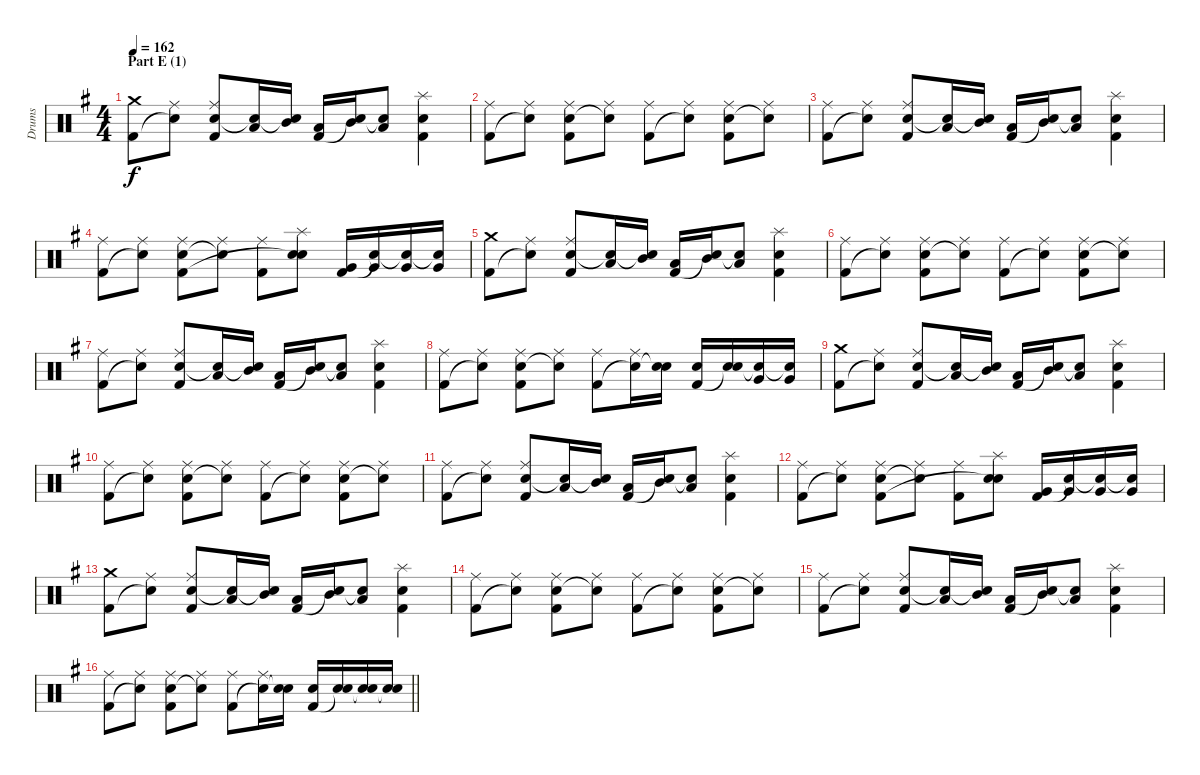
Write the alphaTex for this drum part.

\track ("Drums" "Drums") {instrument percussion}
\staff {score}
\articulation defaults
\ts (4 4)
\section ("" "Part E (1)")
\tempo 162
\clef neutral
\ks g
("Crash medium (hit)" "Kick (hit) 2").8{dy f} ("Ride (middle)" "Snare (hit)"{t}).8 ("Ride (middle)" "Electric Snare (hit)" "Kick (hit) 2").8 ("Low Tom (hit)" "Snare (hit)"{t}).16 ("Mid Tom (hit)" "Snare (hit)"{t}).16 ("Low Tom (hit)" "Kick (hit) 2").16 ("Mid Tom (hit)" "Snare (hit)"{t}).16 ("Low Tom (hit)" "Snare (hit)"{t}).8 ("Splash (hit)" "Electric Snare (hit)" "Kick (hit) 2").4 |
("Ride (middle)" "Kick (hit) 2").8 ("Ride (middle)" "Snare (hit)"{t}).8 ("Ride (middle)" "Electric Snare (hit)" "Kick (hit) 2").8 ("Ride (middle)" "Snare (hit)"{t}).8 ("Ride (middle)" "Kick (hit) 2").8 ("Ride (middle)" "Snare (hit)"{t}).8 ("Ride (middle)" "Electric Snare (hit)" "Kick (hit) 2").8 ("Ride (middle)" "Snare (hit)"{t}).8 |
("Ride (middle)" "Kick (hit) 2").8 ("Ride (middle)" "Snare (hit)"{t}).8 ("Ride (middle)" "Electric Snare (hit)" "Kick (hit) 2").8 ("Low Tom (hit)" "Snare (hit)"{t}).16 ("Mid Tom (hit)" "Snare (hit)"{t}).16 ("Low Tom (hit)" "Kick (hit) 2").16 ("Mid Tom (hit)" "Snare (hit)"{t}).16 ("Low Tom (hit)" "Snare (hit)"{t}).8 ("Splash (hit)" "Electric Snare (hit)" "Kick (hit) 2").4 |
("Ride (middle)" "Kick (hit) 2").8 ("Ride (middle)" "Snare (hit)"{t}).8 ("Ride (middle)" "Electric Snare (hit)" "Kick (hit) 2").8 ("Ride (middle)" "Snare (hit)"{t}).8 ("Ride (middle)" "Kick (hit) 2").8 ("Splash (hit)" "Electric Snare (hit)" "Snare (hit)"{t}).8 ("Very Low Tom (hit)" "Kick (hit) 2").16 ("Very Low Tom (hit)" "Snare (hit)"{t}).16 ("Very Low Tom (hit)" "Snare (hit)"{t}).16 ("Very Low Tom (hit)" "Snare (hit)"{t}).16 |
("Crash medium (hit)" "Kick (hit) 2").8 ("Ride (middle)" "Snare (hit)"{t}).8 ("Ride (middle)" "Electric Snare (hit)" "Kick (hit) 2").8 ("Low Tom (hit)" "Snare (hit)"{t}).16 ("Mid Tom (hit)" "Snare (hit)"{t}).16 ("Low Tom (hit)" "Kick (hit) 2").16 ("Mid Tom (hit)" "Snare (hit)"{t}).16 ("Low Tom (hit)" "Snare (hit)"{t}).8 ("Splash (hit)" "Electric Snare (hit)" "Kick (hit) 2").4 |
("Ride (middle)" "Kick (hit) 2").8 ("Ride (middle)" "Snare (hit)"{t}).8 ("Ride (middle)" "Electric Snare (hit)" "Kick (hit) 2").8 ("Ride (middle)" "Snare (hit)"{t}).8 ("Ride (middle)" "Kick (hit) 2").8 ("Ride (middle)" "Snare (hit)"{t}).8 ("Ride (middle)" "Electric Snare (hit)" "Kick (hit) 2").8 ("Ride (middle)" "Snare (hit)"{t}).8 |
("Ride (middle)" "Kick (hit) 2").8 ("Ride (middle)" "Snare (hit)"{t}).8 ("Ride (middle)" "Electric Snare (hit)" "Kick (hit) 2").8 ("Low Tom (hit)" "Snare (hit)"{t}).16 ("Mid Tom (hit)" "Snare (hit)"{t}).16 ("Low Tom (hit)" "Kick (hit) 2").16 ("Mid Tom (hit)" "Snare (hit)"{t}).16 ("Low Tom (hit)" "Snare (hit)"{t}).8 ("Splash (hit)" "Electric Snare (hit)" "Kick (hit) 2").4 |
("Ride (middle)" "Kick (hit) 2").8 ("Ride (middle)" "Snare (hit)"{t}).8 ("Ride (middle)" "Electric Snare (hit)" "Kick (hit) 2").8 ("Ride (middle)" "Snare (hit)"{t}).8 ("Ride (middle)" "Kick (hit) 2").8 ("Ride (middle)" "Snare (hit)"{t}).16 ("Electric Snare (hit)" "Snare (hit)"{t}).16 ("Electric Snare (hit)" "Kick (hit) 2").16 ("Electric Snare (hit)" "Snare (hit)"{t}).16 ("Very Low Tom (hit)" "Snare (hit)"{t}).16 ("Very Low Tom (hit)" "Snare (hit)"{t}).16 |
("Crash medium (hit)" "Kick (hit) 2").8 ("Ride (middle)" "Snare (hit)"{t}).8 ("Ride (middle)" "Electric Snare (hit)" "Kick (hit) 2").8 ("Low Tom (hit)" "Snare (hit)"{t}).16 ("Mid Tom (hit)" "Snare (hit)"{t}).16 ("Low Tom (hit)" "Kick (hit) 2").16 ("Mid Tom (hit)" "Snare (hit)"{t}).16 ("Low Tom (hit)" "Snare (hit)"{t}).8 ("Splash (hit)" "Electric Snare (hit)" "Kick (hit) 2").4 |
("Ride (middle)" "Kick (hit) 2").8 ("Ride (middle)" "Snare (hit)"{t}).8 ("Ride (middle)" "Electric Snare (hit)" "Kick (hit) 2").8 ("Ride (middle)" "Snare (hit)"{t}).8 ("Ride (middle)" "Kick (hit) 2").8 ("Ride (middle)" "Snare (hit)"{t}).8 ("Ride (middle)" "Electric Snare (hit)" "Kick (hit) 2").8 ("Ride (middle)" "Snare (hit)"{t}).8 |
("Ride (middle)" "Kick (hit) 2").8 ("Ride (middle)" "Snare (hit)"{t}).8 ("Ride (middle)" "Electric Snare (hit)" "Kick (hit) 2").8 ("Low Tom (hit)" "Snare (hit)"{t}).16 ("Mid Tom (hit)" "Snare (hit)"{t}).16 ("Low Tom (hit)" "Kick (hit) 2").16 ("Mid Tom (hit)" "Snare (hit)"{t}).16 ("Low Tom (hit)" "Snare (hit)"{t}).8 ("Splash (hit)" "Electric Snare (hit)" "Kick (hit) 2").4 |
("Ride (middle)" "Kick (hit) 2").8 ("Ride (middle)" "Snare (hit)"{t}).8 ("Ride (middle)" "Electric Snare (hit)" "Kick (hit) 2").8 ("Ride (middle)" "Snare (hit)"{t}).8 ("Ride (middle)" "Kick (hit) 2").8 ("Splash (hit)" "Electric Snare (hit)" "Snare (hit)"{t}).8 ("Very Low Tom (hit)" "Kick (hit) 2").16 ("Very Low Tom (hit)" "Snare (hit)"{t}).16 ("Very Low Tom (hit)" "Snare (hit)"{t}).16 ("Very Low Tom (hit)" "Snare (hit)"{t}).16 |
("Crash medium (hit)" "Kick (hit) 2").8 ("Ride (middle)" "Snare (hit)"{t}).8 ("Ride (middle)" "Electric Snare (hit)" "Kick (hit) 2").8 ("Low Tom (hit)" "Snare (hit)"{t}).16 ("Mid Tom (hit)" "Snare (hit)"{t}).16 ("Low Tom (hit)" "Kick (hit) 2").16 ("Mid Tom (hit)" "Snare (hit)"{t}).16 ("Low Tom (hit)" "Snare (hit)"{t}).8 ("Splash (hit)" "Electric Snare (hit)" "Kick (hit) 2").4 |
("Ride (middle)" "Kick (hit) 2").8 ("Ride (middle)" "Snare (hit)"{t}).8 ("Ride (middle)" "Electric Snare (hit)" "Kick (hit) 2").8 ("Ride (middle)" "Snare (hit)"{t}).8 ("Ride (middle)" "Kick (hit) 2").8 ("Ride (middle)" "Snare (hit)"{t}).8 ("Ride (middle)" "Electric Snare (hit)" "Kick (hit) 2").8 ("Ride (middle)" "Snare (hit)"{t}).8 |
("Ride (middle)" "Kick (hit) 2").8 ("Ride (middle)" "Snare (hit)"{t}).8 ("Ride (middle)" "Electric Snare (hit)" "Kick (hit) 2").8 ("Low Tom (hit)" "Snare (hit)"{t}).16 ("Mid Tom (hit)" "Snare (hit)"{t}).16 ("Low Tom (hit)" "Kick (hit) 2").16 ("Mid Tom (hit)" "Snare (hit)"{t}).16 ("Low Tom (hit)" "Snare (hit)"{t}).8 ("Splash (hit)" "Electric Snare (hit)" "Kick (hit) 2").4 |
\barLineRight lightlight
("Ride (middle)" "Kick (hit) 2").8 ("Ride (middle)" "Snare (hit)"{t}).8 ("Ride (middle)" "Electric Snare (hit)" "Kick (hit) 2").8 ("Ride (middle)" "Snare (hit)"{t}).8 ("Ride (middle)" "Kick (hit) 2").8 ("Ride (middle)" "Snare (hit)"{t}).16 ("Electric Snare (hit)" "Snare (hit)"{t}).16 ("Electric Snare (hit)" "Kick (hit) 2").16 ("Electric Snare (hit)" "Snare (hit)"{t}).16 ("Electric Snare (hit)" "Snare (hit)"{t}).16 ("Electric Snare (hit)" "Snare (hit)"{t}).16
